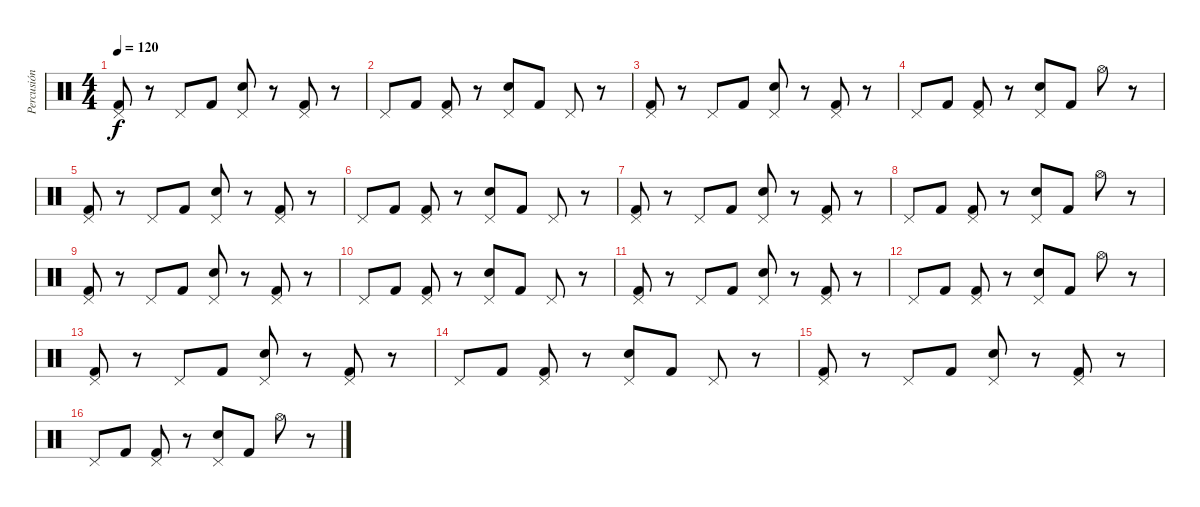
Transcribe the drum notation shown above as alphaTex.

\track ("Percusión" "Percusión") {instrument percussion}
\staff {score}
\articulation defaults
\ts (4 4)
\tempo 120
\clef neutral
\ks c
("Pedal Hi-Hat (hit)" "Kick (hit) 2").8{dy f} r.8 "Pedal Hi-Hat (hit)".8 "Kick (hit) 2".8 ("Pedal Hi-Hat (hit)" "Electric Snare (hit)").8 r.8 ("Pedal Hi-Hat (hit)" "Kick (hit) 2").8 r.8 |
"Pedal Hi-Hat (hit)".8 "Kick (hit) 2".8 ("Pedal Hi-Hat (hit)" "Kick (hit) 2").8 r.8 ("Pedal Hi-Hat (hit)" "Electric Snare (hit)").8 "Kick (hit) 2".8 "Pedal Hi-Hat (hit)".8 r.8 |
("Pedal Hi-Hat (hit)" "Kick (hit) 2").8 r.8 "Pedal Hi-Hat (hit)".8 "Kick (hit) 2".8 ("Pedal Hi-Hat (hit)" "Electric Snare (hit)").8 r.8 ("Pedal Hi-Hat (hit)" "Kick (hit) 2").8 r.8 |
"Pedal Hi-Hat (hit)".8 "Kick (hit) 2".8 ("Pedal Hi-Hat (hit)" "Kick (hit) 2").8 r.8 ("Pedal Hi-Hat (hit)" "Electric Snare (hit)").8 "Kick (hit) 2".8 "Hi-Hat (open)".8 r.8 |
("Pedal Hi-Hat (hit)" "Kick (hit) 2").8 r.8 "Pedal Hi-Hat (hit)".8 "Kick (hit) 2".8 ("Pedal Hi-Hat (hit)" "Electric Snare (hit)").8 r.8 ("Pedal Hi-Hat (hit)" "Kick (hit) 2").8 r.8 |
"Pedal Hi-Hat (hit)".8 "Kick (hit) 2".8 ("Pedal Hi-Hat (hit)" "Kick (hit) 2").8 r.8 ("Pedal Hi-Hat (hit)" "Electric Snare (hit)").8 "Kick (hit) 2".8 "Pedal Hi-Hat (hit)".8 r.8 |
("Pedal Hi-Hat (hit)" "Kick (hit) 2").8 r.8 "Pedal Hi-Hat (hit)".8 "Kick (hit) 2".8 ("Pedal Hi-Hat (hit)" "Electric Snare (hit)").8 r.8 ("Pedal Hi-Hat (hit)" "Kick (hit) 2").8 r.8 |
"Pedal Hi-Hat (hit)".8 "Kick (hit) 2".8 ("Pedal Hi-Hat (hit)" "Kick (hit) 2").8 r.8 ("Pedal Hi-Hat (hit)" "Electric Snare (hit)").8 "Kick (hit) 2".8 "Hi-Hat (open)".8 r.8 |
("Pedal Hi-Hat (hit)" "Kick (hit) 2").8 r.8 "Pedal Hi-Hat (hit)".8 "Kick (hit) 2".8 ("Pedal Hi-Hat (hit)" "Electric Snare (hit)").8 r.8 ("Pedal Hi-Hat (hit)" "Kick (hit) 2").8 r.8 |
"Pedal Hi-Hat (hit)".8 "Kick (hit) 2".8 ("Pedal Hi-Hat (hit)" "Kick (hit) 2").8 r.8 ("Pedal Hi-Hat (hit)" "Electric Snare (hit)").8 "Kick (hit) 2".8 "Pedal Hi-Hat (hit)".8 r.8 |
("Pedal Hi-Hat (hit)" "Kick (hit) 2").8 r.8 "Pedal Hi-Hat (hit)".8 "Kick (hit) 2".8 ("Pedal Hi-Hat (hit)" "Electric Snare (hit)").8 r.8 ("Pedal Hi-Hat (hit)" "Kick (hit) 2").8 r.8 |
"Pedal Hi-Hat (hit)".8 "Kick (hit) 2".8 ("Pedal Hi-Hat (hit)" "Kick (hit) 2").8 r.8 ("Pedal Hi-Hat (hit)" "Electric Snare (hit)").8 "Kick (hit) 2".8 "Hi-Hat (open)".8 r.8 |
("Pedal Hi-Hat (hit)" "Kick (hit) 2").8 r.8 "Pedal Hi-Hat (hit)".8 "Kick (hit) 2".8 ("Pedal Hi-Hat (hit)" "Electric Snare (hit)").8 r.8 ("Pedal Hi-Hat (hit)" "Kick (hit) 2").8 r.8 |
"Pedal Hi-Hat (hit)".8 "Kick (hit) 2".8 ("Pedal Hi-Hat (hit)" "Kick (hit) 2").8 r.8 ("Pedal Hi-Hat (hit)" "Electric Snare (hit)").8 "Kick (hit) 2".8 "Pedal Hi-Hat (hit)".8 r.8 |
("Pedal Hi-Hat (hit)" "Kick (hit) 2").8 r.8 "Pedal Hi-Hat (hit)".8 "Kick (hit) 2".8 ("Pedal Hi-Hat (hit)" "Electric Snare (hit)").8 r.8 ("Pedal Hi-Hat (hit)" "Kick (hit) 2").8 r.8 |
"Pedal Hi-Hat (hit)".8 "Kick (hit) 2".8 ("Pedal Hi-Hat (hit)" "Kick (hit) 2").8 r.8 ("Pedal Hi-Hat (hit)" "Electric Snare (hit)").8 "Kick (hit) 2".8 "Hi-Hat (open)".8 r.8
